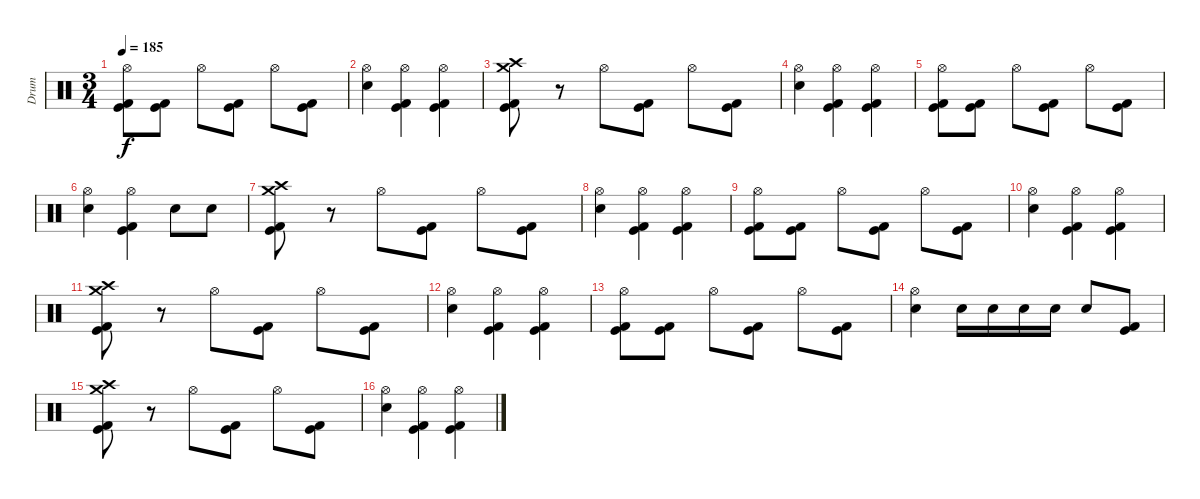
\track ("Drum" "Drum") {instrument percussion}
\staff {score}
\articulation defaults
\ts (3 4)
\tempo 185
\clef neutral
\ks c
("Hi-Hat (open)" "Kick (hit)" "Kick (hit) 2").8{dy f} ("Kick (hit)" "Kick (hit) 2").8 "Hi-Hat (open)".8 ("Kick (hit)" "Kick (hit) 2").8 "Hi-Hat (open)".8 ("Kick (hit)" "Kick (hit) 2").8 |
("Hi-Hat (open)" "Electric Snare (hit)").4 ("Hi-Hat (open)" "Kick (hit)" "Kick (hit) 2").4 ("Hi-Hat (open)" "Kick (hit)" "Kick (hit) 2").4 |
("Crash medium (hit)" "Crash high (hit)" "Kick (hit)" "Kick (hit) 2").8 r.8 "Hi-Hat (open)".8 ("Kick (hit)" "Kick (hit) 2").8 "Hi-Hat (open)".8 ("Kick (hit)" "Kick (hit) 2").8 |
("Hi-Hat (open)" "Electric Snare (hit)").4 ("Hi-Hat (open)" "Kick (hit)" "Kick (hit) 2").4 ("Hi-Hat (open)" "Kick (hit)" "Kick (hit) 2").4 |
("Hi-Hat (open)" "Kick (hit)" "Kick (hit) 2").8 ("Kick (hit)" "Kick (hit) 2").8 "Hi-Hat (open)".8 ("Kick (hit)" "Kick (hit) 2").8 "Hi-Hat (open)".8 ("Kick (hit)" "Kick (hit) 2").8 |
("Hi-Hat (open)" "Electric Snare (hit)").4 ("Hi-Hat (open)" "Kick (hit)" "Kick (hit) 2").4 "Electric Snare (hit)".8 "Electric Snare (hit)".8 |
("Crash medium (hit)" "Crash high (hit)" "Kick (hit)" "Kick (hit) 2").8 r.8 "Hi-Hat (open)".8 ("Kick (hit)" "Kick (hit) 2").8 "Hi-Hat (open)".8 ("Kick (hit)" "Kick (hit) 2").8 |
("Hi-Hat (open)" "Electric Snare (hit)").4 ("Hi-Hat (open)" "Kick (hit)" "Kick (hit) 2").4 ("Hi-Hat (open)" "Kick (hit)" "Kick (hit) 2").4 |
("Hi-Hat (open)" "Kick (hit)" "Kick (hit) 2").8 ("Kick (hit)" "Kick (hit) 2").8 "Hi-Hat (open)".8 ("Kick (hit)" "Kick (hit) 2").8 "Hi-Hat (open)".8 ("Kick (hit)" "Kick (hit) 2").8 |
("Hi-Hat (open)" "Electric Snare (hit)").4 ("Hi-Hat (open)" "Kick (hit)" "Kick (hit) 2").4 ("Hi-Hat (open)" "Kick (hit)" "Kick (hit) 2").4 |
("Crash medium (hit)" "Crash high (hit)" "Kick (hit)" "Kick (hit) 2").8 r.8 "Hi-Hat (open)".8 ("Kick (hit)" "Kick (hit) 2").8 "Hi-Hat (open)".8 ("Kick (hit)" "Kick (hit) 2").8 |
("Hi-Hat (open)" "Electric Snare (hit)").4 ("Hi-Hat (open)" "Kick (hit)" "Kick (hit) 2").4 ("Hi-Hat (open)" "Kick (hit)" "Kick (hit) 2").4 |
("Hi-Hat (open)" "Kick (hit)" "Kick (hit) 2").8 ("Kick (hit)" "Kick (hit) 2").8 "Hi-Hat (open)".8 ("Kick (hit)" "Kick (hit) 2").8 "Hi-Hat (open)".8 ("Kick (hit)" "Kick (hit) 2").8 |
("Hi-Hat (open)" "Electric Snare (hit)").4 "Electric Snare (hit)".16 "Electric Snare (hit)".16 "Electric Snare (hit)".16 "Electric Snare (hit)".16 "Electric Snare (hit)".8 ("Kick (hit)" "Kick (hit) 2").8 |
("Crash medium (hit)" "Crash high (hit)" "Kick (hit)" "Kick (hit) 2").8 r.8 "Hi-Hat (open)".8 ("Kick (hit)" "Kick (hit) 2").8 "Hi-Hat (open)".8 ("Kick (hit)" "Kick (hit) 2").8 |
("Hi-Hat (open)" "Electric Snare (hit)").4 ("Hi-Hat (open)" "Kick (hit)" "Kick (hit) 2").4 ("Hi-Hat (open)" "Kick (hit)" "Kick (hit) 2").4
